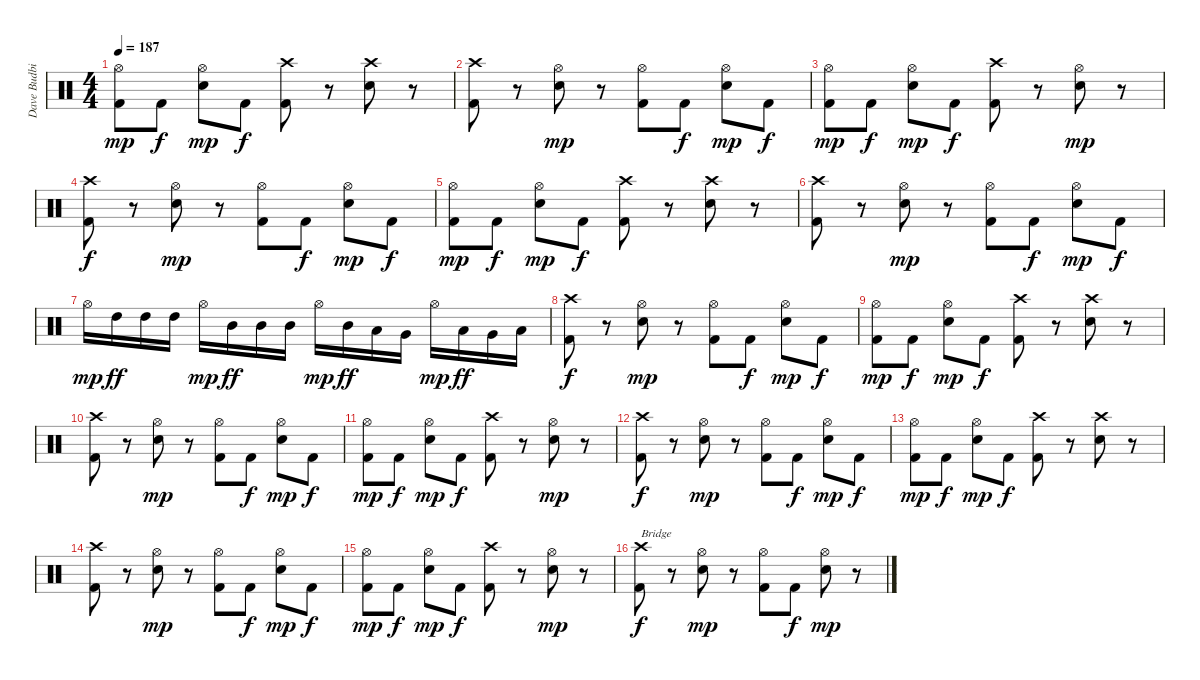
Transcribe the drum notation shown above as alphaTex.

\track ("Dave Budbill" "Dave Budbi") {instrument percussion}
\staff {score}
\articulation defaults
\ts (4 4)
\tempo 187
\clef neutral
\ks c
("Hi-Hat (open)" "Kick (hit) 2").8{dy mp} "Kick (hit) 2".8{dy f} ("Hi-Hat (open)" "Snare (hit) 2").8{dy mp} "Kick (hit) 2".8{dy f} ("Crash high (hit)" "Kick (hit) 2").8 r.8 ("Crash high (hit)" "Snare (hit) 2").8 r.8 |
("Crash high (hit)" "Kick (hit) 2").8 r.8 ("Hi-Hat (open)" "Snare (hit) 2").8{dy mp} r.8 ("Hi-Hat (open)" "Kick (hit) 2").8 "Kick (hit) 2".8{dy f} ("Hi-Hat (open)" "Snare (hit) 2").8{dy mp} "Kick (hit) 2".8{dy f} |
("Hi-Hat (open)" "Kick (hit) 2").8{dy mp} "Kick (hit) 2".8{dy f} ("Hi-Hat (open)" "Snare (hit) 2").8{dy mp} "Kick (hit) 2".8{dy f} ("Crash high (hit)" "Kick (hit) 2").8 r.8 ("Hi-Hat (open)" "Snare (hit) 2").8{dy mp} r.8 |
("Crash high (hit)" "Kick (hit) 2").8{dy f} r.8 ("Hi-Hat (open)" "Snare (hit) 2").8{dy mp} r.8 ("Hi-Hat (open)" "Kick (hit) 2").8 "Kick (hit) 2".8{dy f} ("Hi-Hat (open)" "Snare (hit) 2").8{dy mp} "Kick (hit) 2".8{dy f} |
("Hi-Hat (open)" "Kick (hit) 2").8{dy mp} "Kick (hit) 2".8{dy f} ("Hi-Hat (open)" "Snare (hit) 2").8{dy mp} "Kick (hit) 2".8{dy f} ("Crash high (hit)" "Kick (hit) 2").8 r.8 ("Crash high (hit)" "Snare (hit) 2").8 r.8 |
("Crash high (hit)" "Kick (hit) 2").8 r.8 ("Hi-Hat (open)" "Snare (hit) 2").8{dy mp} r.8 ("Hi-Hat (open)" "Kick (hit) 2").8 "Kick (hit) 2".8{dy f} ("Hi-Hat (open)" "Snare (hit) 2").8{dy mp} "Kick (hit) 2".8{dy f} |
"Hi-Hat (open)".16{dy mp} "High Tom (hit)".16{dy ff} "High Tom (hit)".16 "High Tom (hit)".16 "Hi-Hat (open)".16{dy mp} "Mid Tom (hit)".16{dy ff} "Mid Tom (hit)".16 "Mid Tom (hit)".16 "Hi-Hat (open)".16{dy mp} "Mid Tom (hit)".16{dy ff} "Low Tom (hit)".16 "Very Low Tom (hit)".16 "Hi-Hat (open)".16{dy mp} "Low Tom (hit)".16{dy ff} "Very Low Tom (hit)".16 "Low Floor Tom (hit)".16 |
("Crash high (hit)" "Kick (hit) 2").8{dy f} r.8 ("Hi-Hat (open)" "Snare (hit) 2").8{dy mp} r.8 ("Hi-Hat (open)" "Kick (hit) 2").8 "Kick (hit) 2".8{dy f} ("Hi-Hat (open)" "Snare (hit) 2").8{dy mp} "Kick (hit) 2".8{dy f} |
("Hi-Hat (open)" "Kick (hit) 2").8{dy mp} "Kick (hit) 2".8{dy f} ("Hi-Hat (open)" "Snare (hit) 2").8{dy mp} "Kick (hit) 2".8{dy f} ("Crash high (hit)" "Kick (hit) 2").8 r.8 ("Crash high (hit)" "Snare (hit) 2").8 r.8 |
("Crash high (hit)" "Kick (hit) 2").8 r.8 ("Hi-Hat (open)" "Snare (hit) 2").8{dy mp} r.8 ("Hi-Hat (open)" "Kick (hit) 2").8 "Kick (hit) 2".8{dy f} ("Hi-Hat (open)" "Snare (hit) 2").8{dy mp} "Kick (hit) 2".8{dy f} |
("Hi-Hat (open)" "Kick (hit) 2").8{dy mp} "Kick (hit) 2".8{dy f} ("Hi-Hat (open)" "Snare (hit) 2").8{dy mp} "Kick (hit) 2".8{dy f} ("Crash high (hit)" "Kick (hit) 2").8 r.8 ("Hi-Hat (open)" "Snare (hit) 2").8{dy mp} r.8 |
("Crash high (hit)" "Kick (hit) 2").8{dy f} r.8 ("Hi-Hat (open)" "Snare (hit) 2").8{dy mp} r.8 ("Hi-Hat (open)" "Kick (hit) 2").8 "Kick (hit) 2".8{dy f} ("Hi-Hat (open)" "Snare (hit) 2").8{dy mp} "Kick (hit) 2".8{dy f} |
("Hi-Hat (open)" "Kick (hit) 2").8{dy mp} "Kick (hit) 2".8{dy f} ("Hi-Hat (open)" "Snare (hit) 2").8{dy mp} "Kick (hit) 2".8{dy f} ("Crash high (hit)" "Kick (hit) 2").8 r.8 ("Crash high (hit)" "Snare (hit) 2").8 r.8 |
("Crash high (hit)" "Kick (hit) 2").8 r.8 ("Hi-Hat (open)" "Snare (hit) 2").8{dy mp} r.8 ("Hi-Hat (open)" "Kick (hit) 2").8 "Kick (hit) 2".8{dy f} ("Hi-Hat (open)" "Snare (hit) 2").8{dy mp} "Kick (hit) 2".8{dy f} |
("Hi-Hat (open)" "Kick (hit) 2").8{dy mp} "Kick (hit) 2".8{dy f} ("Hi-Hat (open)" "Snare (hit) 2").8{dy mp} "Kick (hit) 2".8{dy f} ("Crash high (hit)" "Kick (hit) 2").8 r.8 ("Hi-Hat (open)" "Snare (hit) 2").8{dy mp} r.8 |
("Crash high (hit)" "Kick (hit) 2").8{txt "Bridge" dy f} r.8 ("Hi-Hat (open)" "Snare (hit) 2").8{dy mp} r.8 ("Hi-Hat (open)" "Kick (hit) 2").8 "Kick (hit) 2".8{dy f} ("Hi-Hat (open)" "Snare (hit) 2").8{dy mp} r.8
